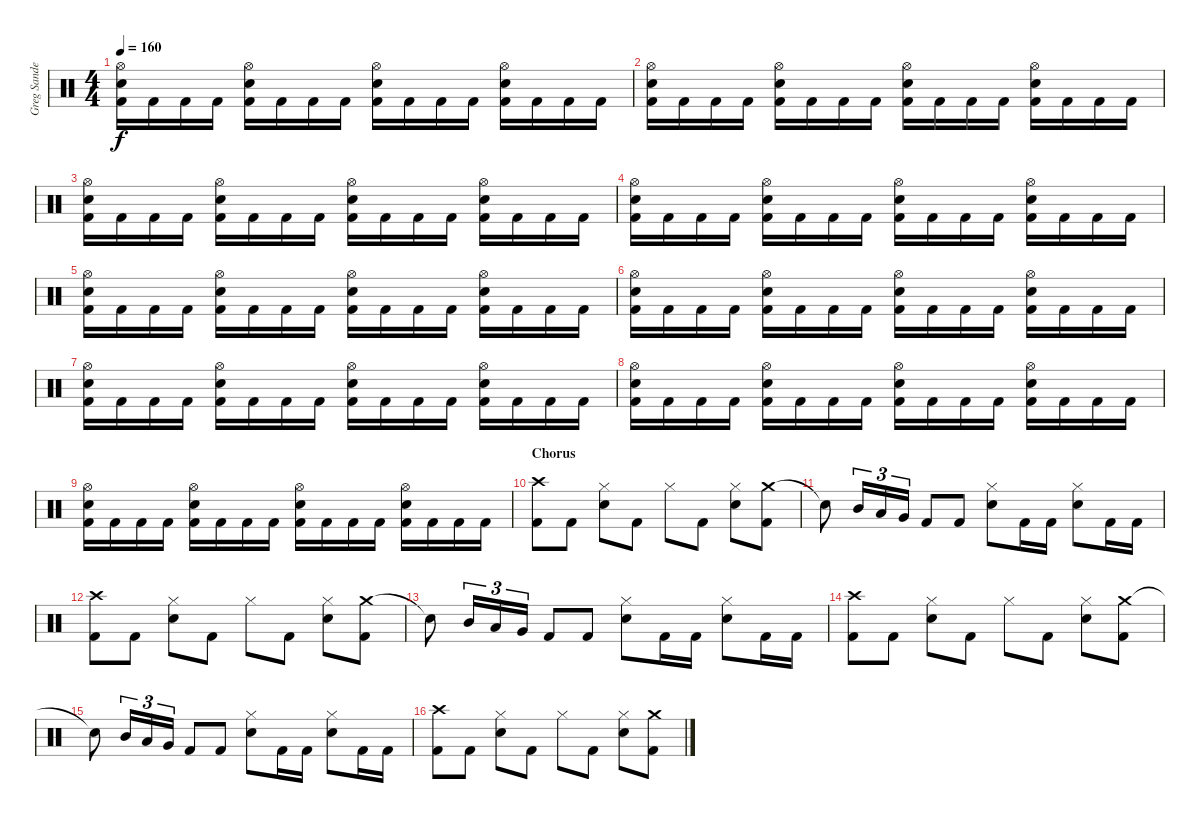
\track ("Greg Sanderson" "Greg Sande") {instrument percussion}
\staff {score}
\articulation defaults
\ts (4 4)
\tempo 160
\clef neutral
\ks c
("Hi-Hat (open)" "Snare (hit) 2" "Kick (hit) 2").16{dy f} "Kick (hit) 2".16 "Kick (hit) 2".16 "Kick (hit) 2".16 ("Hi-Hat (open)" "Snare (hit) 2" "Kick (hit) 2").16 "Kick (hit) 2".16 "Kick (hit) 2".16 "Kick (hit) 2".16 ("Hi-Hat (open)" "Snare (hit) 2" "Kick (hit) 2").16 "Kick (hit) 2".16 "Kick (hit) 2".16 "Kick (hit) 2".16 ("Hi-Hat (open)" "Snare (hit) 2" "Kick (hit) 2").16 "Kick (hit) 2".16 "Kick (hit) 2".16 "Kick (hit) 2".16 |
("Hi-Hat (open)" "Snare (hit) 2" "Kick (hit) 2").16 "Kick (hit) 2".16 "Kick (hit) 2".16 "Kick (hit) 2".16 ("Hi-Hat (open)" "Snare (hit) 2" "Kick (hit) 2").16 "Kick (hit) 2".16 "Kick (hit) 2".16 "Kick (hit) 2".16 ("Hi-Hat (open)" "Snare (hit) 2" "Kick (hit) 2").16 "Kick (hit) 2".16 "Kick (hit) 2".16 "Kick (hit) 2".16 ("Hi-Hat (open)" "Snare (hit) 2" "Kick (hit) 2").16 "Kick (hit) 2".16 "Kick (hit) 2".16 "Kick (hit) 2".16 |
("Hi-Hat (open)" "Snare (hit) 2" "Kick (hit) 2").16 "Kick (hit) 2".16 "Kick (hit) 2".16 "Kick (hit) 2".16 ("Hi-Hat (open)" "Snare (hit) 2" "Kick (hit) 2").16 "Kick (hit) 2".16 "Kick (hit) 2".16 "Kick (hit) 2".16 ("Hi-Hat (open)" "Snare (hit) 2" "Kick (hit) 2").16 "Kick (hit) 2".16 "Kick (hit) 2".16 "Kick (hit) 2".16 ("Hi-Hat (open)" "Snare (hit) 2" "Kick (hit) 2").16 "Kick (hit) 2".16 "Kick (hit) 2".16 "Kick (hit) 2".16 |
("Hi-Hat (open)" "Snare (hit) 2" "Kick (hit) 2").16 "Kick (hit) 2".16 "Kick (hit) 2".16 "Kick (hit) 2".16 ("Hi-Hat (open)" "Snare (hit) 2" "Kick (hit) 2").16 "Kick (hit) 2".16 "Kick (hit) 2".16 "Kick (hit) 2".16 ("Hi-Hat (open)" "Snare (hit) 2" "Kick (hit) 2").16 "Kick (hit) 2".16 "Kick (hit) 2".16 "Kick (hit) 2".16 ("Hi-Hat (open)" "Snare (hit) 2" "Kick (hit) 2").16 "Kick (hit) 2".16 "Kick (hit) 2".16 "Kick (hit) 2".16 |
("Hi-Hat (open)" "Snare (hit) 2" "Kick (hit) 2").16 "Kick (hit) 2".16 "Kick (hit) 2".16 "Kick (hit) 2".16 ("Hi-Hat (open)" "Snare (hit) 2" "Kick (hit) 2").16 "Kick (hit) 2".16 "Kick (hit) 2".16 "Kick (hit) 2".16 ("Hi-Hat (open)" "Snare (hit) 2" "Kick (hit) 2").16 "Kick (hit) 2".16 "Kick (hit) 2".16 "Kick (hit) 2".16 ("Hi-Hat (open)" "Snare (hit) 2" "Kick (hit) 2").16 "Kick (hit) 2".16 "Kick (hit) 2".16 "Kick (hit) 2".16 |
("Hi-Hat (open)" "Snare (hit) 2" "Kick (hit) 2").16 "Kick (hit) 2".16 "Kick (hit) 2".16 "Kick (hit) 2".16 ("Hi-Hat (open)" "Snare (hit) 2" "Kick (hit) 2").16 "Kick (hit) 2".16 "Kick (hit) 2".16 "Kick (hit) 2".16 ("Hi-Hat (open)" "Snare (hit) 2" "Kick (hit) 2").16 "Kick (hit) 2".16 "Kick (hit) 2".16 "Kick (hit) 2".16 ("Hi-Hat (open)" "Snare (hit) 2" "Kick (hit) 2").16 "Kick (hit) 2".16 "Kick (hit) 2".16 "Kick (hit) 2".16 |
("Hi-Hat (open)" "Snare (hit) 2" "Kick (hit) 2").16 "Kick (hit) 2".16 "Kick (hit) 2".16 "Kick (hit) 2".16 ("Hi-Hat (open)" "Snare (hit) 2" "Kick (hit) 2").16 "Kick (hit) 2".16 "Kick (hit) 2".16 "Kick (hit) 2".16 ("Hi-Hat (open)" "Snare (hit) 2" "Kick (hit) 2").16 "Kick (hit) 2".16 "Kick (hit) 2".16 "Kick (hit) 2".16 ("Hi-Hat (open)" "Snare (hit) 2" "Kick (hit) 2").16 "Kick (hit) 2".16 "Kick (hit) 2".16 "Kick (hit) 2".16 |
("Hi-Hat (open)" "Snare (hit) 2" "Kick (hit) 2").16 "Kick (hit) 2".16 "Kick (hit) 2".16 "Kick (hit) 2".16 ("Hi-Hat (open)" "Snare (hit) 2" "Kick (hit) 2").16 "Kick (hit) 2".16 "Kick (hit) 2".16 "Kick (hit) 2".16 ("Hi-Hat (open)" "Snare (hit) 2" "Kick (hit) 2").16 "Kick (hit) 2".16 "Kick (hit) 2".16 "Kick (hit) 2".16 ("Hi-Hat (open)" "Snare (hit) 2" "Kick (hit) 2").16 "Kick (hit) 2".16 "Kick (hit) 2".16 "Kick (hit) 2".16 |
("Hi-Hat (open)" "Snare (hit) 2" "Kick (hit) 2").16 "Kick (hit) 2".16 "Kick (hit) 2".16 "Kick (hit) 2".16 ("Hi-Hat (open)" "Snare (hit) 2" "Kick (hit) 2").16 "Kick (hit) 2".16 "Kick (hit) 2".16 "Kick (hit) 2".16 ("Hi-Hat (open)" "Snare (hit) 2" "Kick (hit) 2").16 "Kick (hit) 2".16 "Kick (hit) 2".16 "Kick (hit) 2".16 ("Hi-Hat (open)" "Snare (hit) 2" "Kick (hit) 2").16 "Kick (hit) 2".16 "Kick (hit) 2".16 "Kick (hit) 2".16 |
\section ("" "Chorus")
("Crash high (hit)" "Kick (hit) 2").8 "Kick (hit) 2".8 ("Hi-Hat (closed)" "Snare (hit) 2").8 "Kick (hit) 2".8 "Hi-Hat (closed)".8 "Kick (hit) 2".8 ("Hi-Hat (closed)" "Snare (hit) 2").8 ("Crash medium (hit)" "Kick (hit) 2").8 |
"Snare (hit)"{t}.8 "Mid Tom (hit)".16{tu (3 2)} "Low Tom (hit)".16{tu (3 2)} "Very Low Tom (hit)".16{tu (3 2)} "Kick (hit) 2".8 "Kick (hit) 2".8 ("Hi-Hat (closed)" "Snare (hit) 2").8 "Kick (hit) 2".16 "Kick (hit) 2".16 ("Hi-Hat (closed)" "Snare (hit) 2").8 "Kick (hit) 2".16 "Kick (hit) 2".16 |
("Crash high (hit)" "Kick (hit) 2").8 "Kick (hit) 2".8 ("Hi-Hat (closed)" "Snare (hit) 2").8 "Kick (hit) 2".8 "Hi-Hat (closed)".8 "Kick (hit) 2".8 ("Hi-Hat (closed)" "Snare (hit) 2").8 ("Crash medium (hit)" "Kick (hit) 2").8 |
"Snare (hit)"{t}.8 "Mid Tom (hit)".16{tu (3 2)} "Low Tom (hit)".16{tu (3 2)} "Very Low Tom (hit)".16{tu (3 2)} "Kick (hit) 2".8 "Kick (hit) 2".8 ("Hi-Hat (closed)" "Snare (hit) 2").8 "Kick (hit) 2".16 "Kick (hit) 2".16 ("Hi-Hat (closed)" "Snare (hit) 2").8 "Kick (hit) 2".16 "Kick (hit) 2".16 |
("Crash high (hit)" "Kick (hit) 2").8 "Kick (hit) 2".8 ("Hi-Hat (closed)" "Snare (hit) 2").8 "Kick (hit) 2".8 "Hi-Hat (closed)".8 "Kick (hit) 2".8 ("Hi-Hat (closed)" "Snare (hit) 2").8 ("Crash medium (hit)" "Kick (hit) 2").8 |
"Snare (hit)"{t}.8 "Mid Tom (hit)".16{tu (3 2)} "Low Tom (hit)".16{tu (3 2)} "Very Low Tom (hit)".16{tu (3 2)} "Kick (hit) 2".8 "Kick (hit) 2".8 ("Hi-Hat (closed)" "Snare (hit) 2").8 "Kick (hit) 2".16 "Kick (hit) 2".16 ("Hi-Hat (closed)" "Snare (hit) 2").8 "Kick (hit) 2".16 "Kick (hit) 2".16 |
("Crash high (hit)" "Kick (hit) 2").8 "Kick (hit) 2".8 ("Hi-Hat (closed)" "Snare (hit) 2").8 "Kick (hit) 2".8 "Hi-Hat (closed)".8 "Kick (hit) 2".8 ("Hi-Hat (closed)" "Snare (hit) 2").8 ("Crash medium (hit)" "Kick (hit) 2").8
